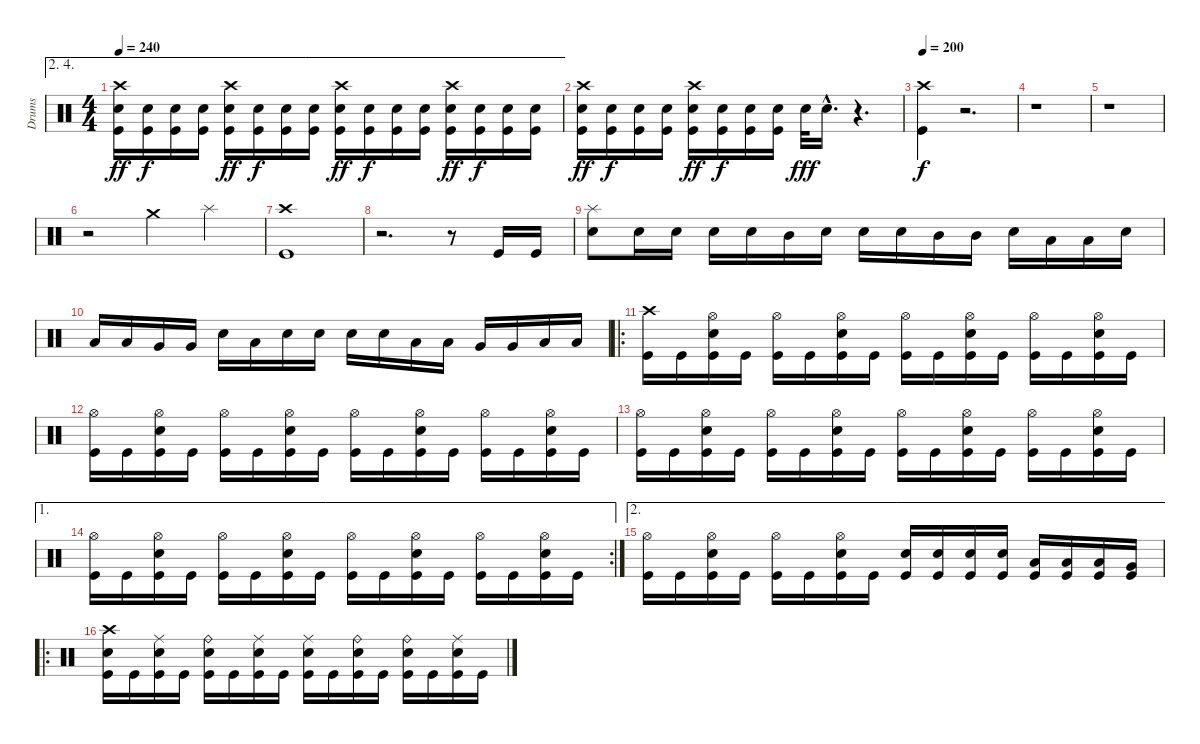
\track ("Drums" "Drums") {instrument percussion}
\staff {score}
\articulation defaults
\ae (2 4)
\ts (4 4)
\tempo 240
\clef neutral
\ks c
("Crash high (hit)" "Electric Snare (hit)" "Kick (hit)").16{dy ff} ("Electric Snare (hit)" "Kick (hit)").16{dy f} ("Electric Snare (hit)" "Kick (hit)").16 ("Electric Snare (hit)" "Kick (hit)").16 ("Crash high (hit)" "Electric Snare (hit)" "Kick (hit)").16{dy ff} ("Electric Snare (hit)" "Kick (hit)").16{dy f} ("Electric Snare (hit)" "Kick (hit)").16 ("Electric Snare (hit)" "Kick (hit)").16 ("Crash high (hit)" "Electric Snare (hit)" "Kick (hit)").16{dy ff} ("Electric Snare (hit)" "Kick (hit)").16{dy f} ("Electric Snare (hit)" "Kick (hit)").16 ("Electric Snare (hit)" "Kick (hit)").16 ("Crash high (hit)" "Electric Snare (hit)" "Kick (hit)").16{dy ff} ("Electric Snare (hit)" "Kick (hit)").16{dy f} ("Electric Snare (hit)" "Kick (hit)").16 ("Electric Snare (hit)" "Kick (hit)").16 |
("Crash high (hit)" "Electric Snare (hit)" "Kick (hit)").16{dy ff} ("Electric Snare (hit)" "Kick (hit)").16{dy f} ("Electric Snare (hit)" "Kick (hit)").16 ("Electric Snare (hit)" "Kick (hit)").16 ("Crash high (hit)" "Electric Snare (hit)" "Kick (hit)").16{dy ff} ("Electric Snare (hit)" "Kick (hit)").16{dy f} ("Electric Snare (hit)" "Kick (hit)").16 ("Electric Snare (hit)" "Kick (hit)").16 "Electric Snare (hit)".32{dy fff} "Electric Snare (hit)"{hac}.16{d} r.4{d} |
\tempo 200
("Crash high (hit)" "Kick (hit)").4{dy f} r.2{d volume 0} |
r.1 |
r.1 |
r.2 "Crash medium (hit)".4{volume 16} "Splash (hit)".4 |
("Crash high (hit)" "Kick (hit)").1 |
r.2{d} r.8 "Kick (hit)".16 "Kick (hit)".16 |
("Splash (hit)" "Electric Snare (hit)").8 "Electric Snare (hit)".16 "Electric Snare (hit)".16 "Electric Snare (hit)".16 "Electric Snare (hit)".16 "Mid Tom (hit)".16 "Electric Snare (hit)".16 "Electric Snare (hit)".16 "Electric Snare (hit)".16 "Mid Tom (hit)".16 "Mid Tom (hit)".16 "Electric Snare (hit)".16 "Low Tom (hit)".16 "Low Tom (hit)".16 "Electric Snare (hit)".16 |
"Low Tom (hit)".16 "Low Tom (hit)".16 "Very Low Tom (hit)".16 "Very Low Tom (hit)".16 "Electric Snare (hit)".16 "Low Tom (hit)".16 "Electric Snare (hit)".16 "Electric Snare (hit)".16 "Electric Snare (hit)".16 "Electric Snare (hit)".16 "Low Tom (hit)".16 "Low Tom (hit)".16 "Very Low Tom (hit)".16 "Very Low Tom (hit)".16 "Low Floor Tom (hit)".16 "Low Floor Tom (hit)".16 |
\ro
("Crash high (hit)" "Kick (hit)").16 "Kick (hit)".16 ("Hi-Hat (open)" "Electric Snare (hit)" "Kick (hit)").16 "Kick (hit)".16 ("Hi-Hat (open)" "Kick (hit)").16 "Kick (hit)".16 ("Hi-Hat (open)" "Electric Snare (hit)" "Kick (hit)").16 "Kick (hit)".16 ("Hi-Hat (open)" "Kick (hit)").16 "Kick (hit)".16 ("Hi-Hat (open)" "Electric Snare (hit)" "Kick (hit)").16 "Kick (hit)".16 ("Hi-Hat (open)" "Kick (hit)").16 "Kick (hit)".16 ("Hi-Hat (open)" "Electric Snare (hit)" "Kick (hit)").16 "Kick (hit)".16 |
("Hi-Hat (open)" "Kick (hit)").16 "Kick (hit)".16 ("Hi-Hat (open)" "Electric Snare (hit)" "Kick (hit)").16 "Kick (hit)".16 ("Hi-Hat (open)" "Kick (hit)").16 "Kick (hit)".16 ("Hi-Hat (open)" "Electric Snare (hit)" "Kick (hit)").16 "Kick (hit)".16 ("Hi-Hat (open)" "Kick (hit)").16 "Kick (hit)".16 ("Hi-Hat (open)" "Electric Snare (hit)" "Kick (hit)").16 "Kick (hit)".16 ("Hi-Hat (open)" "Kick (hit)").16 "Kick (hit)".16 ("Hi-Hat (open)" "Electric Snare (hit)" "Kick (hit)").16 "Kick (hit)".16 |
("Hi-Hat (open)" "Kick (hit)").16 "Kick (hit)".16 ("Hi-Hat (open)" "Electric Snare (hit)" "Kick (hit)").16 "Kick (hit)".16 ("Hi-Hat (open)" "Kick (hit)").16 "Kick (hit)".16 ("Hi-Hat (open)" "Electric Snare (hit)" "Kick (hit)").16 "Kick (hit)".16 ("Hi-Hat (open)" "Kick (hit)").16 "Kick (hit)".16 ("Hi-Hat (open)" "Electric Snare (hit)" "Kick (hit)").16 "Kick (hit)".16 ("Hi-Hat (open)" "Kick (hit)").16 "Kick (hit)".16 ("Hi-Hat (open)" "Electric Snare (hit)" "Kick (hit)").16 "Kick (hit)".16 |
\ae 1
\rc 2
("Hi-Hat (open)" "Kick (hit)").16 "Kick (hit)".16 ("Hi-Hat (open)" "Electric Snare (hit)" "Kick (hit)").16 "Kick (hit)".16 ("Hi-Hat (open)" "Kick (hit)").16 "Kick (hit)".16 ("Hi-Hat (open)" "Electric Snare (hit)" "Kick (hit)").16 "Kick (hit)".16 ("Hi-Hat (open)" "Kick (hit)").16 "Kick (hit)".16 ("Hi-Hat (open)" "Electric Snare (hit)" "Kick (hit)").16 "Kick (hit)".16 ("Hi-Hat (open)" "Kick (hit)").16 "Kick (hit)".16 ("Hi-Hat (open)" "Electric Snare (hit)" "Kick (hit)").16 "Kick (hit)".16 |
\ae 2
("Hi-Hat (open)" "Kick (hit)").16 "Kick (hit)".16 ("Hi-Hat (open)" "Electric Snare (hit)" "Kick (hit)").16 "Kick (hit)".16 ("Hi-Hat (open)" "Kick (hit)").16 "Kick (hit)".16 ("Hi-Hat (open)" "Electric Snare (hit)" "Kick (hit)").16 "Kick (hit)".16 ("Electric Snare (hit)" "Kick (hit)").16 ("Electric Snare (hit)" "Kick (hit)").16 ("Electric Snare (hit)" "Kick (hit)").16 ("Electric Snare (hit)" "Kick (hit)").16 ("Low Tom (hit)" "Kick (hit)").16 ("Low Tom (hit)" "Kick (hit)").16 ("Low Tom (hit)" "Kick (hit)").16 ("Very Low Tom (hit)" "Kick (hit)").16 |
\ro
("Crash high (hit)" "Electric Snare (hit)" "Kick (hit)").16 "Kick (hit)".16 ("Ride (middle)" "Electric Snare (hit)" "Kick (hit)").16 "Kick (hit)".16 ("Ride (bell)" "Electric Snare (hit)" "Kick (hit)").16 "Kick (hit)".16 ("Ride (middle)" "Electric Snare (hit)" "Kick (hit)").16 "Kick (hit)".16 ("Ride (middle)" "Electric Snare (hit)" "Kick (hit)").16 "Kick (hit)".16 ("Ride (bell)" "Electric Snare (hit)" "Kick (hit)").16 "Kick (hit)".16 ("Ride (bell)" "Electric Snare (hit)" "Kick (hit)").16 "Kick (hit)".16 ("Ride (middle)" "Electric Snare (hit)" "Kick (hit)").16 "Kick (hit)".16
